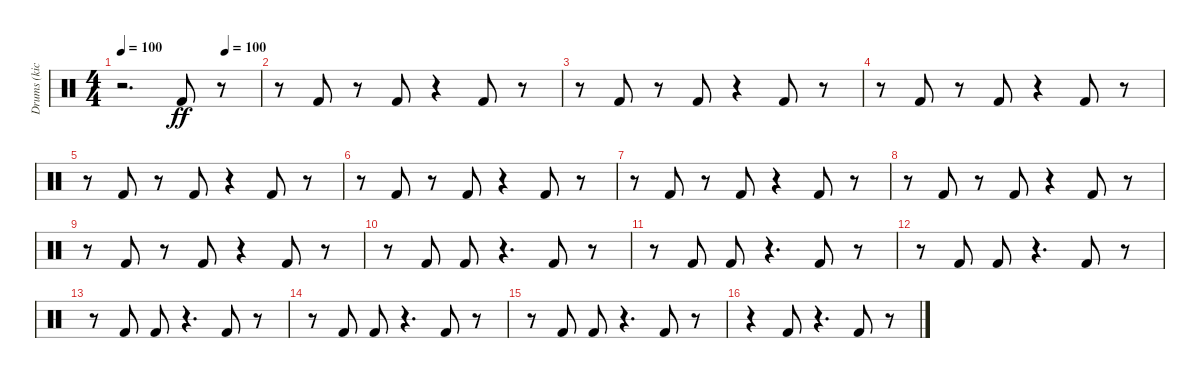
\track ("Drums (kick)" "Drums (kic") {instrument percussion}
\staff {score}
\articulation defaults
\ts (4 4)
\tempo 100
\tempo (100 0.75)
\clef neutral
\ks c
r.2{d dy fff} "Kick (hit) 2".8{dy ff} r.8 |
r.8 "Kick (hit) 2".8 r.8 "Kick (hit) 2".8 r.4 "Kick (hit) 2".8 r.8 |
r.8 "Kick (hit) 2".8 r.8 "Kick (hit) 2".8 r.4 "Kick (hit) 2".8 r.8 |
r.8 "Kick (hit) 2".8 r.8 "Kick (hit) 2".8 r.4 "Kick (hit) 2".8 r.8 |
r.8 "Kick (hit) 2".8 r.8 "Kick (hit) 2".8 r.4 "Kick (hit) 2".8 r.8 |
r.8 "Kick (hit) 2".8 r.8 "Kick (hit) 2".8 r.4 "Kick (hit) 2".8 r.8 |
r.8 "Kick (hit) 2".8 r.8 "Kick (hit) 2".8 r.4 "Kick (hit) 2".8 r.8 |
r.8 "Kick (hit) 2".8 r.8 "Kick (hit) 2".8 r.4 "Kick (hit) 2".8 r.8 |
r.8 "Kick (hit) 2".8 r.8 "Kick (hit) 2".8 r.4 "Kick (hit) 2".8 r.8 |
r.8 "Kick (hit) 2".8 "Kick (hit) 2".8 r.4{d} "Kick (hit) 2".8 r.8 |
r.8 "Kick (hit) 2".8 "Kick (hit) 2".8 r.4{d} "Kick (hit) 2".8 r.8 |
r.8 "Kick (hit) 2".8 "Kick (hit) 2".8 r.4{d} "Kick (hit) 2".8 r.8 |
r.8 "Kick (hit) 2".8 "Kick (hit) 2".8 r.4{d} "Kick (hit) 2".8 r.8 |
r.8 "Kick (hit) 2".8 "Kick (hit) 2".8 r.4{d} "Kick (hit) 2".8 r.8 |
r.8 "Kick (hit) 2".8 "Kick (hit) 2".8 r.4{d} "Kick (hit) 2".8 r.8 |
r.4 "Kick (hit) 2".8 r.4{d} "Kick (hit) 2".8 r.8
